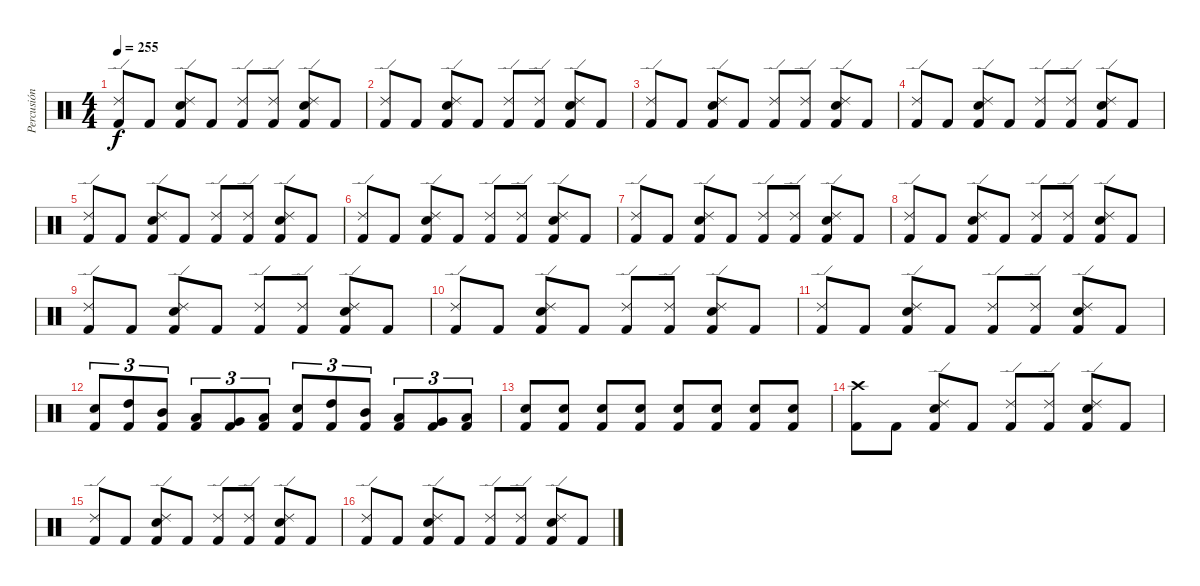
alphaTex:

\track ("Percusión" "Percusión") {instrument percussion}
\staff {score}
\articulation defaults
\ts (4 4)
\tempo 255
\clef neutral
\ks c
("Kick (hit) 2" "Ride (edge) 2").8{dy f} "Kick (hit) 2".8 ("Kick (hit) 2" "Electric Snare (hit)" "Ride (edge) 2").8 "Kick (hit) 2".8 ("Kick (hit) 2" "Ride (edge) 2").8 ("Kick (hit) 2" "Ride (edge) 2").8 ("Kick (hit) 2" "Electric Snare (hit)" "Ride (edge) 2").8 "Kick (hit) 2".8 |
("Kick (hit) 2" "Ride (edge) 2").8 "Kick (hit) 2".8 ("Kick (hit) 2" "Electric Snare (hit)" "Ride (edge) 2").8 "Kick (hit) 2".8 ("Kick (hit) 2" "Ride (edge) 2").8 ("Kick (hit) 2" "Ride (edge) 2").8 ("Kick (hit) 2" "Electric Snare (hit)" "Ride (edge) 2").8 "Kick (hit) 2".8 |
("Kick (hit) 2" "Ride (edge) 2").8 "Kick (hit) 2".8 ("Kick (hit) 2" "Electric Snare (hit)" "Ride (edge) 2").8 "Kick (hit) 2".8 ("Kick (hit) 2" "Ride (edge) 2").8 ("Kick (hit) 2" "Ride (edge) 2").8 ("Kick (hit) 2" "Electric Snare (hit)" "Ride (edge) 2").8 "Kick (hit) 2".8 |
("Kick (hit) 2" "Ride (edge) 2").8 "Kick (hit) 2".8 ("Kick (hit) 2" "Electric Snare (hit)" "Ride (edge) 2").8 "Kick (hit) 2".8 ("Kick (hit) 2" "Ride (edge) 2").8 ("Kick (hit) 2" "Ride (edge) 2").8 ("Kick (hit) 2" "Electric Snare (hit)" "Ride (edge) 2").8 "Kick (hit) 2".8 |
("Kick (hit) 2" "Ride (edge) 2").8 "Kick (hit) 2".8 ("Kick (hit) 2" "Electric Snare (hit)" "Ride (edge) 2").8 "Kick (hit) 2".8 ("Kick (hit) 2" "Ride (edge) 2").8 ("Kick (hit) 2" "Ride (edge) 2").8 ("Kick (hit) 2" "Electric Snare (hit)" "Ride (edge) 2").8 "Kick (hit) 2".8 |
("Kick (hit) 2" "Ride (edge) 2").8 "Kick (hit) 2".8 ("Kick (hit) 2" "Electric Snare (hit)" "Ride (edge) 2").8 "Kick (hit) 2".8 ("Kick (hit) 2" "Ride (edge) 2").8 ("Kick (hit) 2" "Ride (edge) 2").8 ("Kick (hit) 2" "Electric Snare (hit)" "Ride (edge) 2").8 "Kick (hit) 2".8 |
("Kick (hit) 2" "Ride (edge) 2").8 "Kick (hit) 2".8 ("Kick (hit) 2" "Electric Snare (hit)" "Ride (edge) 2").8 "Kick (hit) 2".8 ("Kick (hit) 2" "Ride (edge) 2").8 ("Kick (hit) 2" "Ride (edge) 2").8 ("Kick (hit) 2" "Electric Snare (hit)" "Ride (edge) 2").8 "Kick (hit) 2".8 |
("Kick (hit) 2" "Ride (edge) 2").8 "Kick (hit) 2".8 ("Kick (hit) 2" "Electric Snare (hit)" "Ride (edge) 2").8 "Kick (hit) 2".8 ("Kick (hit) 2" "Ride (edge) 2").8 ("Kick (hit) 2" "Ride (edge) 2").8 ("Kick (hit) 2" "Electric Snare (hit)" "Ride (edge) 2").8 "Kick (hit) 2".8 |
("Kick (hit) 2" "Ride (edge) 2").8 "Kick (hit) 2".8 ("Kick (hit) 2" "Electric Snare (hit)" "Ride (edge) 2").8 "Kick (hit) 2".8 ("Kick (hit) 2" "Ride (edge) 2").8 ("Kick (hit) 2" "Ride (edge) 2").8 ("Kick (hit) 2" "Electric Snare (hit)" "Ride (edge) 2").8 "Kick (hit) 2".8 |
("Kick (hit) 2" "Ride (edge) 2").8 "Kick (hit) 2".8 ("Kick (hit) 2" "Electric Snare (hit)" "Ride (edge) 2").8 "Kick (hit) 2".8 ("Kick (hit) 2" "Ride (edge) 2").8 ("Kick (hit) 2" "Ride (edge) 2").8 ("Kick (hit) 2" "Electric Snare (hit)" "Ride (edge) 2").8 "Kick (hit) 2".8 |
("Kick (hit) 2" "Ride (edge) 2").8 "Kick (hit) 2".8 ("Kick (hit) 2" "Electric Snare (hit)" "Ride (edge) 2").8 "Kick (hit) 2".8 ("Kick (hit) 2" "Ride (edge) 2").8 ("Kick (hit) 2" "Ride (edge) 2").8 ("Kick (hit) 2" "Electric Snare (hit)" "Ride (edge) 2").8 "Kick (hit) 2".8 |
("Kick (hit) 2" "Electric Snare (hit)").8{tu (3 2)} ("Kick (hit) 2" "High Tom (hit)").8{tu (3 2)} ("Kick (hit) 2" "Mid Tom (hit)").8{tu (3 2)} ("Kick (hit) 2" "Low Tom (hit)").8{tu (3 2)} ("Kick (hit) 2" "Very Low Tom (hit)").8{tu (3 2)} ("Kick (hit) 2" "Low Floor Tom (hit)").8{tu (3 2)} ("Kick (hit) 2" "Electric Snare (hit)").8{tu (3 2)} ("Kick (hit) 2" "High Tom (hit)").8{tu (3 2)} ("Kick (hit) 2" "Mid Tom (hit)").8{tu (3 2)} ("Kick (hit) 2" "Low Tom (hit)").8{tu (3 2)} ("Kick (hit) 2" "Very Low Tom (hit)").8{tu (3 2)} ("Kick (hit) 2" "Low Floor Tom (hit)").8{tu (3 2)} |
("Kick (hit) 2" "Electric Snare (hit)").8 ("Kick (hit) 2" "Electric Snare (hit)").8 ("Kick (hit) 2" "Electric Snare (hit)").8 ("Kick (hit) 2" "Electric Snare (hit)").8 ("Kick (hit) 2" "Electric Snare (hit)").8 ("Kick (hit) 2" "Electric Snare (hit)").8 ("Kick (hit) 2" "Electric Snare (hit)").8 ("Kick (hit) 2" "Electric Snare (hit)").8 |
("Kick (hit) 2" "Crash high (hit)").8 "Kick (hit) 2".8 ("Kick (hit) 2" "Electric Snare (hit)" "Ride (edge) 2").8 "Kick (hit) 2".8 ("Kick (hit) 2" "Ride (edge) 2").8 ("Kick (hit) 2" "Ride (edge) 2").8 ("Kick (hit) 2" "Electric Snare (hit)" "Ride (edge) 2").8 "Kick (hit) 2".8 |
("Kick (hit) 2" "Ride (edge) 2").8 "Kick (hit) 2".8 ("Kick (hit) 2" "Electric Snare (hit)" "Ride (edge) 2").8 "Kick (hit) 2".8 ("Kick (hit) 2" "Ride (edge) 2").8 ("Kick (hit) 2" "Ride (edge) 2").8 ("Kick (hit) 2" "Electric Snare (hit)" "Ride (edge) 2").8 "Kick (hit) 2".8 |
("Kick (hit) 2" "Ride (edge) 2").8 "Kick (hit) 2".8 ("Kick (hit) 2" "Electric Snare (hit)" "Ride (edge) 2").8 "Kick (hit) 2".8 ("Kick (hit) 2" "Ride (edge) 2").8 ("Kick (hit) 2" "Ride (edge) 2").8 ("Kick (hit) 2" "Electric Snare (hit)" "Ride (edge) 2").8 "Kick (hit) 2".8
